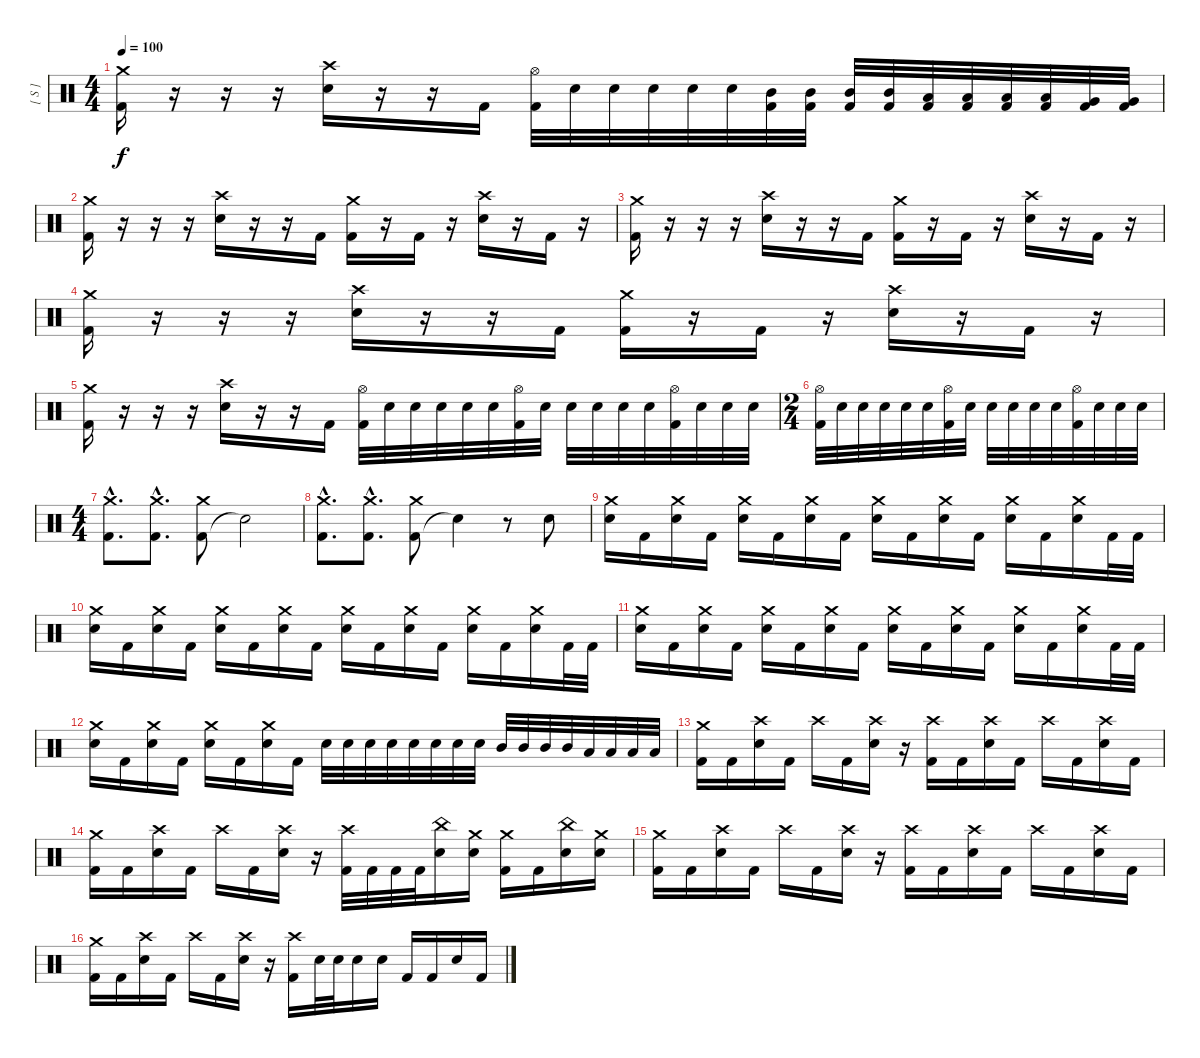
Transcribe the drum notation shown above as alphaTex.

\track ("[ S ]" "[ S ]") {instrument percussion}
\staff {score}
\articulation defaults
\ts (4 4)
\tempo 100
\clef neutral
\ks c
("Kick (hit) 2" "Crash medium (hit)").16{dy f} r.16 r.16 r.16 ("Electric Snare (hit)" "Crash high (hit)").16 r.16 r.16 "Kick (hit) 2".16 ("Kick (hit) 2" "Hi-Hat (open)").32 "Electric Snare (hit)".32 "Electric Snare (hit)".32 "Electric Snare (hit)".32 "Electric Snare (hit)".32 "Electric Snare (hit)".32 ("Kick (hit) 2" "Mid Tom (hit)").32 ("Kick (hit) 2" "Mid Tom (hit)").32 ("Kick (hit) 2" "Mid Tom (hit)").32 ("Kick (hit) 2" "Mid Tom (hit)").32 ("Kick (hit) 2" "Low Tom (hit)").32 ("Kick (hit) 2" "Low Tom (hit)").32 ("Kick (hit) 2" "Low Tom (hit)").32 ("Kick (hit) 2" "Low Tom (hit)").32 ("Kick (hit) 2" "Very Low Tom (hit)").32 ("Kick (hit) 2" "Very Low Tom (hit)").32 |
("Kick (hit) 2" "Crash medium (hit)").16 r.16 r.16 r.16 ("Electric Snare (hit)" "Crash high (hit)").16 r.16 r.16 "Kick (hit) 2".16 ("Kick (hit) 2" "Crash medium (hit)").16 r.16 "Kick (hit) 2".16 r.16 ("Electric Snare (hit)" "Crash high (hit)").16 r.16 "Kick (hit) 2".16 r.16 |
("Kick (hit) 2" "Crash medium (hit)").16 r.16 r.16 r.16 ("Electric Snare (hit)" "Crash high (hit)").16 r.16 r.16 "Kick (hit) 2".16 ("Kick (hit) 2" "Crash medium (hit)").16 r.16 "Kick (hit) 2".16 r.16 ("Electric Snare (hit)" "Crash high (hit)").16 r.16 "Kick (hit) 2".16 r.16 |
("Kick (hit) 2" "Crash medium (hit)").16 r.16 r.16 r.16 ("Electric Snare (hit)" "Crash high (hit)").16 r.16 r.16 "Kick (hit) 2".16 ("Kick (hit) 2" "Crash medium (hit)").16 r.16 "Kick (hit) 2".16 r.16 ("Electric Snare (hit)" "Crash high (hit)").16 r.16 "Kick (hit) 2".16 r.16 |
("Kick (hit) 2" "Crash medium (hit)").16 r.16 r.16 r.16 ("Electric Snare (hit)" "Crash high (hit)").16 r.16 r.16 "Kick (hit) 2".16 ("Kick (hit) 2" "Hi-Hat (open)").32 "Electric Snare (hit)".32 "Electric Snare (hit)".32 "Electric Snare (hit)".32 "Electric Snare (hit)".32 "Electric Snare (hit)".32 ("Kick (hit) 2" "Hi-Hat (open)").32 "Electric Snare (hit)".32 "Electric Snare (hit)".32 "Electric Snare (hit)".32 "Electric Snare (hit)".32 "Electric Snare (hit)".32 ("Kick (hit) 2" "Hi-Hat (open)").32 "Electric Snare (hit)".32 "Electric Snare (hit)".32 "Electric Snare (hit)".32 |
\ts (2 4)
("Kick (hit) 2" "Hi-Hat (open)").32 "Electric Snare (hit)".32 "Electric Snare (hit)".32 "Electric Snare (hit)".32 "Electric Snare (hit)".32 "Electric Snare (hit)".32 ("Kick (hit) 2" "Hi-Hat (open)").32 "Electric Snare (hit)".32 "Electric Snare (hit)".32 "Electric Snare (hit)".32 "Electric Snare (hit)".32 "Electric Snare (hit)".32 ("Kick (hit) 2" "Hi-Hat (open)").32 "Electric Snare (hit)".32 "Electric Snare (hit)".32 "Electric Snare (hit)".32 |
\ts (4 4)
("Kick (hit) 2"{hac} "Crash medium (hit)"{hac}).8{d} ("Kick (hit) 2"{hac} "Crash medium (hit)"{hac}).8{d} ("Kick (hit) 2" "Crash medium (hit)").8 "Snare (hit)"{t}.2 |
("Kick (hit) 2"{hac} "Crash medium (hit)"{hac}).8{d} ("Kick (hit) 2"{hac} "Crash medium (hit)"{hac}).8{d} ("Kick (hit) 2" "Crash medium (hit)").8 "Snare (hit)"{t}.4 r.8 "Electric Snare (hit)".8 |
("Electric Snare (hit)" "Crash medium (hit)").16 "Kick (hit) 2".16 ("Electric Snare (hit)" "Crash medium (hit)").16 "Kick (hit) 2".16 ("Electric Snare (hit)" "Crash medium (hit)").16 "Kick (hit) 2".16 ("Electric Snare (hit)" "Crash medium (hit)").16 "Kick (hit) 2".16 ("Electric Snare (hit)" "Crash medium (hit)").16 "Kick (hit) 2".16 ("Electric Snare (hit)" "Crash medium (hit)").16 "Kick (hit) 2".16 ("Electric Snare (hit)" "Crash medium (hit)").16 "Kick (hit) 2".16 ("Electric Snare (hit)" "Crash medium (hit)").16 "Kick (hit) 2".32 "Kick (hit) 2".32 |
("Electric Snare (hit)" "Crash medium (hit)").16 "Kick (hit) 2".16 ("Electric Snare (hit)" "Crash medium (hit)").16 "Kick (hit) 2".16 ("Electric Snare (hit)" "Crash medium (hit)").16 "Kick (hit) 2".16 ("Electric Snare (hit)" "Crash medium (hit)").16 "Kick (hit) 2".16 ("Electric Snare (hit)" "Crash medium (hit)").16 "Kick (hit) 2".16 ("Electric Snare (hit)" "Crash medium (hit)").16 "Kick (hit) 2".16 ("Electric Snare (hit)" "Crash medium (hit)").16 "Kick (hit) 2".16 ("Electric Snare (hit)" "Crash medium (hit)").16 "Kick (hit) 2".32 "Kick (hit) 2".32 |
("Electric Snare (hit)" "Crash medium (hit)").16 "Kick (hit) 2".16 ("Electric Snare (hit)" "Crash medium (hit)").16 "Kick (hit) 2".16 ("Electric Snare (hit)" "Crash medium (hit)").16 "Kick (hit) 2".16 ("Electric Snare (hit)" "Crash medium (hit)").16 "Kick (hit) 2".16 ("Electric Snare (hit)" "Crash medium (hit)").16 "Kick (hit) 2".16 ("Electric Snare (hit)" "Crash medium (hit)").16 "Kick (hit) 2".16 ("Electric Snare (hit)" "Crash medium (hit)").16 "Kick (hit) 2".16 ("Electric Snare (hit)" "Crash medium (hit)").16 "Kick (hit) 2".32 "Kick (hit) 2".32 |
("Electric Snare (hit)" "Crash medium (hit)").16 "Kick (hit) 2".16 ("Electric Snare (hit)" "Crash medium (hit)").16 "Kick (hit) 2".16 ("Electric Snare (hit)" "Crash medium (hit)").16 "Kick (hit) 2".16 ("Electric Snare (hit)" "Crash medium (hit)").16 "Kick (hit) 2".16 "Electric Snare (hit)".32 "Electric Snare (hit)".32 "Electric Snare (hit)".32 "Electric Snare (hit)".32 "Electric Snare (hit)".32 "Electric Snare (hit)".32 "Electric Snare (hit)".32 "Electric Snare (hit)".32 "Mid Tom (hit)".32 "Mid Tom (hit)".32 "Mid Tom (hit)".32 "Mid Tom (hit)".32 "Low Tom (hit)".32 "Low Tom (hit)".32 "Low Tom (hit)".32 "Low Tom (hit)".32 |
("Kick (hit) 2" "Crash medium (hit)").16 "Kick (hit) 2".16 ("Electric Snare (hit)" "Crash high (hit)").16 "Kick (hit) 2".16 "Crash high (hit)".16 "Kick (hit) 2".16 ("Electric Snare (hit)" "Crash high (hit)").16 r.16 ("Kick (hit) 2" "Crash high (hit)").16 "Kick (hit) 2".16 ("Electric Snare (hit)" "Crash high (hit)").16 "Kick (hit) 2".16 "Crash high (hit)".16 "Kick (hit) 2".16 ("Electric Snare (hit)" "Crash high (hit)").16 "Kick (hit) 2".16 |
("Kick (hit) 2" "Crash medium (hit)").16 "Kick (hit) 2".16 ("Electric Snare (hit)" "Crash high (hit)").16 "Kick (hit) 2".16 "Crash high (hit)".16 "Kick (hit) 2".16 ("Electric Snare (hit)" "Crash high (hit)").16 r.16 ("Kick (hit) 2" "Crash high (hit)").32 "Kick (hit) 2".32 "Kick (hit) 2".32 "Kick (hit) 2".32 ("Electric Snare (hit)" "China (hit)").16 ("Electric Snare (hit)" "Crash medium (hit)").16 ("Kick (hit) 2" "Crash medium (hit)").16 "Kick (hit) 2".16 ("Electric Snare (hit)" "China (hit)").16 ("Electric Snare (hit)" "Crash medium (hit)").16 |
("Kick (hit) 2" "Crash medium (hit)").16 "Kick (hit) 2".16 ("Electric Snare (hit)" "Crash high (hit)").16 "Kick (hit) 2".16 "Crash high (hit)".16 "Kick (hit) 2".16 ("Electric Snare (hit)" "Crash high (hit)").16 r.16 ("Kick (hit) 2" "Crash high (hit)").16 "Kick (hit) 2".16 ("Electric Snare (hit)" "Crash high (hit)").16 "Kick (hit) 2".16 "Crash high (hit)".16 "Kick (hit) 2".16 ("Electric Snare (hit)" "Crash high (hit)").16 "Kick (hit) 2".16 |
("Kick (hit) 2" "Crash medium (hit)").16 "Kick (hit) 2".16 ("Electric Snare (hit)" "Crash high (hit)").16 "Kick (hit) 2".16 "Crash high (hit)".16 "Kick (hit) 2".16 ("Electric Snare (hit)" "Crash high (hit)").16 r.16 ("Kick (hit) 2" "Crash high (hit)").16 "Electric Snare (hit)".32 "Electric Snare (hit)".32 "Electric Snare (hit)".16 "Electric Snare (hit)".16 "Kick (hit) 2".16 "Kick (hit) 2".16 "Electric Snare (hit)".16 "Kick (hit) 2".16
